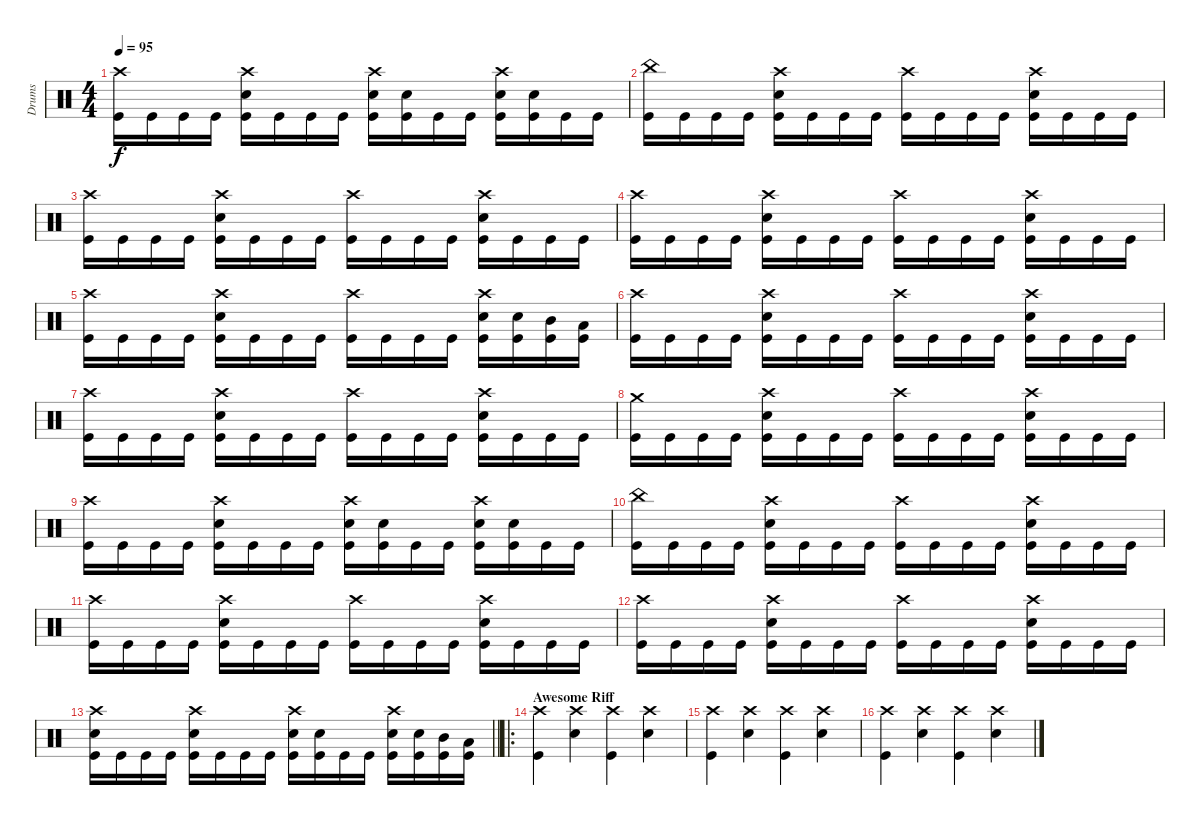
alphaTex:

\track ("Drums" "Drums") {instrument percussion}
\staff {score}
\articulation defaults
\ts (4 4)
\tempo 95
\clef neutral
\ks c
("Crash high (hit)" "Kick (hit)").16{dy f} "Kick (hit)".16 "Kick (hit)".16 "Kick (hit)".16 ("Crash high (hit)" "Snare (hit) 2" "Kick (hit)").16 "Kick (hit)".16 "Kick (hit)".16 "Kick (hit)".16 ("Crash high (hit)" "Snare (hit) 2" "Kick (hit)").16 ("Snare (hit) 2" "Kick (hit)").16 "Kick (hit)".16 "Kick (hit)".16 ("Crash high (hit)" "Snare (hit) 2" "Kick (hit)").16 ("Snare (hit) 2" "Kick (hit)").16 "Kick (hit)".16 "Kick (hit)".16 |
("China (hit)" "Kick (hit)").16 "Kick (hit)".16 "Kick (hit)".16 "Kick (hit)".16 ("Crash high (hit)" "Snare (hit) 2" "Kick (hit)").16 "Kick (hit)".16 "Kick (hit)".16 "Kick (hit)".16 ("Crash high (hit)" "Kick (hit)").16 "Kick (hit)".16 "Kick (hit)".16 "Kick (hit)".16 ("Crash high (hit)" "Snare (hit) 2" "Kick (hit)").16 "Kick (hit)".16 "Kick (hit)".16 "Kick (hit)".16 |
("Crash high (hit)" "Kick (hit)").16 "Kick (hit)".16 "Kick (hit)".16 "Kick (hit)".16 ("Crash high (hit)" "Snare (hit) 2" "Kick (hit)").16 "Kick (hit)".16 "Kick (hit)".16 "Kick (hit)".16 ("Crash high (hit)" "Kick (hit)").16 "Kick (hit)".16 "Kick (hit)".16 "Kick (hit)".16 ("Crash high (hit)" "Snare (hit) 2" "Kick (hit)").16 "Kick (hit)".16 "Kick (hit)".16 "Kick (hit)".16 |
("Crash high (hit)" "Kick (hit)").16 "Kick (hit)".16 "Kick (hit)".16 "Kick (hit)".16 ("Crash high (hit)" "Snare (hit) 2" "Kick (hit)").16 "Kick (hit)".16 "Kick (hit)".16 "Kick (hit)".16 ("Crash high (hit)" "Kick (hit)").16 "Kick (hit)".16 "Kick (hit)".16 "Kick (hit)".16 ("Crash high (hit)" "Snare (hit) 2" "Kick (hit)").16 "Kick (hit)".16 "Kick (hit)".16 "Kick (hit)".16 |
("Crash high (hit)" "Kick (hit)").16 "Kick (hit)".16 "Kick (hit)".16 "Kick (hit)".16 ("Crash high (hit)" "Snare (hit) 2" "Kick (hit)").16 "Kick (hit)".16 "Kick (hit)".16 "Kick (hit)".16 ("Crash high (hit)" "Kick (hit)").16 "Kick (hit)".16 "Kick (hit)".16 "Kick (hit)".16 ("Crash high (hit)" "Snare (hit) 2" "Kick (hit)").16 ("Snare (hit) 2" "Kick (hit)").16 ("Mid Tom (hit)" "Kick (hit)").16 ("Low Tom (hit)" "Kick (hit)").16 |
("Crash high (hit)" "Kick (hit)").16 "Kick (hit)".16 "Kick (hit)".16 "Kick (hit)".16 ("Crash high (hit)" "Snare (hit) 2" "Kick (hit)").16 "Kick (hit)".16 "Kick (hit)".16 "Kick (hit)".16 ("Crash high (hit)" "Kick (hit)").16 "Kick (hit)".16 "Kick (hit)".16 "Kick (hit)".16 ("Crash high (hit)" "Snare (hit) 2" "Kick (hit)").16 "Kick (hit)".16 "Kick (hit)".16 "Kick (hit)".16 |
("Crash high (hit)" "Kick (hit)").16 "Kick (hit)".16 "Kick (hit)".16 "Kick (hit)".16 ("Crash high (hit)" "Snare (hit) 2" "Kick (hit)").16 "Kick (hit)".16 "Kick (hit)".16 "Kick (hit)".16 ("Crash high (hit)" "Kick (hit)").16 "Kick (hit)".16 "Kick (hit)".16 "Kick (hit)".16 ("Crash high (hit)" "Snare (hit) 2" "Kick (hit)").16 "Kick (hit)".16 "Kick (hit)".16 "Kick (hit)".16 |
("Crash medium (hit)" "Kick (hit)").16 "Kick (hit)".16 "Kick (hit)".16 "Kick (hit)".16 ("Crash high (hit)" "Snare (hit) 2" "Kick (hit)").16 "Kick (hit)".16 "Kick (hit)".16 "Kick (hit)".16 ("Crash high (hit)" "Kick (hit)").16 "Kick (hit)".16 "Kick (hit)".16 "Kick (hit)".16 ("Crash high (hit)" "Snare (hit) 2" "Kick (hit)").16 "Kick (hit)".16 "Kick (hit)".16 "Kick (hit)".16 |
("Crash high (hit)" "Kick (hit)").16 "Kick (hit)".16 "Kick (hit)".16 "Kick (hit)".16 ("Crash high (hit)" "Snare (hit) 2" "Kick (hit)").16 "Kick (hit)".16 "Kick (hit)".16 "Kick (hit)".16 ("Crash high (hit)" "Snare (hit) 2" "Kick (hit)").16 ("Snare (hit) 2" "Kick (hit)").16 "Kick (hit)".16 "Kick (hit)".16 ("Crash high (hit)" "Snare (hit) 2" "Kick (hit)").16 ("Snare (hit) 2" "Kick (hit)").16 "Kick (hit)".16 "Kick (hit)".16 |
("China (hit)" "Kick (hit)").16 "Kick (hit)".16 "Kick (hit)".16 "Kick (hit)".16 ("Crash high (hit)" "Snare (hit) 2" "Kick (hit)").16 "Kick (hit)".16 "Kick (hit)".16 "Kick (hit)".16 ("Crash high (hit)" "Kick (hit)").16 "Kick (hit)".16 "Kick (hit)".16 "Kick (hit)".16 ("Crash high (hit)" "Snare (hit) 2" "Kick (hit)").16 "Kick (hit)".16 "Kick (hit)".16 "Kick (hit)".16 |
("Crash high (hit)" "Kick (hit)").16 "Kick (hit)".16 "Kick (hit)".16 "Kick (hit)".16 ("Crash high (hit)" "Snare (hit) 2" "Kick (hit)").16 "Kick (hit)".16 "Kick (hit)".16 "Kick (hit)".16 ("Crash high (hit)" "Kick (hit)").16 "Kick (hit)".16 "Kick (hit)".16 "Kick (hit)".16 ("Crash high (hit)" "Snare (hit) 2" "Kick (hit)").16 "Kick (hit)".16 "Kick (hit)".16 "Kick (hit)".16 |
("Crash high (hit)" "Kick (hit)").16 "Kick (hit)".16 "Kick (hit)".16 "Kick (hit)".16 ("Crash high (hit)" "Snare (hit) 2" "Kick (hit)").16 "Kick (hit)".16 "Kick (hit)".16 "Kick (hit)".16 ("Crash high (hit)" "Kick (hit)").16 "Kick (hit)".16 "Kick (hit)".16 "Kick (hit)".16 ("Crash high (hit)" "Snare (hit) 2" "Kick (hit)").16 "Kick (hit)".16 "Kick (hit)".16 "Kick (hit)".16 |
\barLineRight lightlight
("Crash high (hit)" "Snare (hit) 2" "Kick (hit)").16 "Kick (hit)".16 "Kick (hit)".16 "Kick (hit)".16 ("Crash high (hit)" "Snare (hit) 2" "Kick (hit)").16 "Kick (hit)".16 "Kick (hit)".16 "Kick (hit)".16 ("Crash high (hit)" "Snare (hit) 2" "Kick (hit)").16 ("Snare (hit) 2" "Kick (hit)").16 "Kick (hit)".16 "Kick (hit)".16 ("Crash high (hit)" "Snare (hit) 2" "Kick (hit)").16 ("Snare (hit) 2" "Kick (hit)").16 ("Mid Tom (hit)" "Kick (hit)").16 ("Low Tom (hit)" "Kick (hit)").16 |
\ro
\section ("" "Awesome Riff ")
("Crash high (hit)" "Kick (hit)").4 ("Crash high (hit)" "Snare (hit) 2").4 ("Crash high (hit)" "Kick (hit)").4 ("Crash high (hit)" "Snare (hit) 2").4 |
("Crash high (hit)" "Kick (hit)").4 ("Crash high (hit)" "Snare (hit) 2").4 ("Crash high (hit)" "Kick (hit)").4 ("Crash high (hit)" "Snare (hit) 2").4 |
("Crash high (hit)" "Kick (hit)").4 ("Crash high (hit)" "Snare (hit) 2").4 ("Crash high (hit)" "Kick (hit)").4 ("Crash high (hit)" "Snare (hit) 2").4
